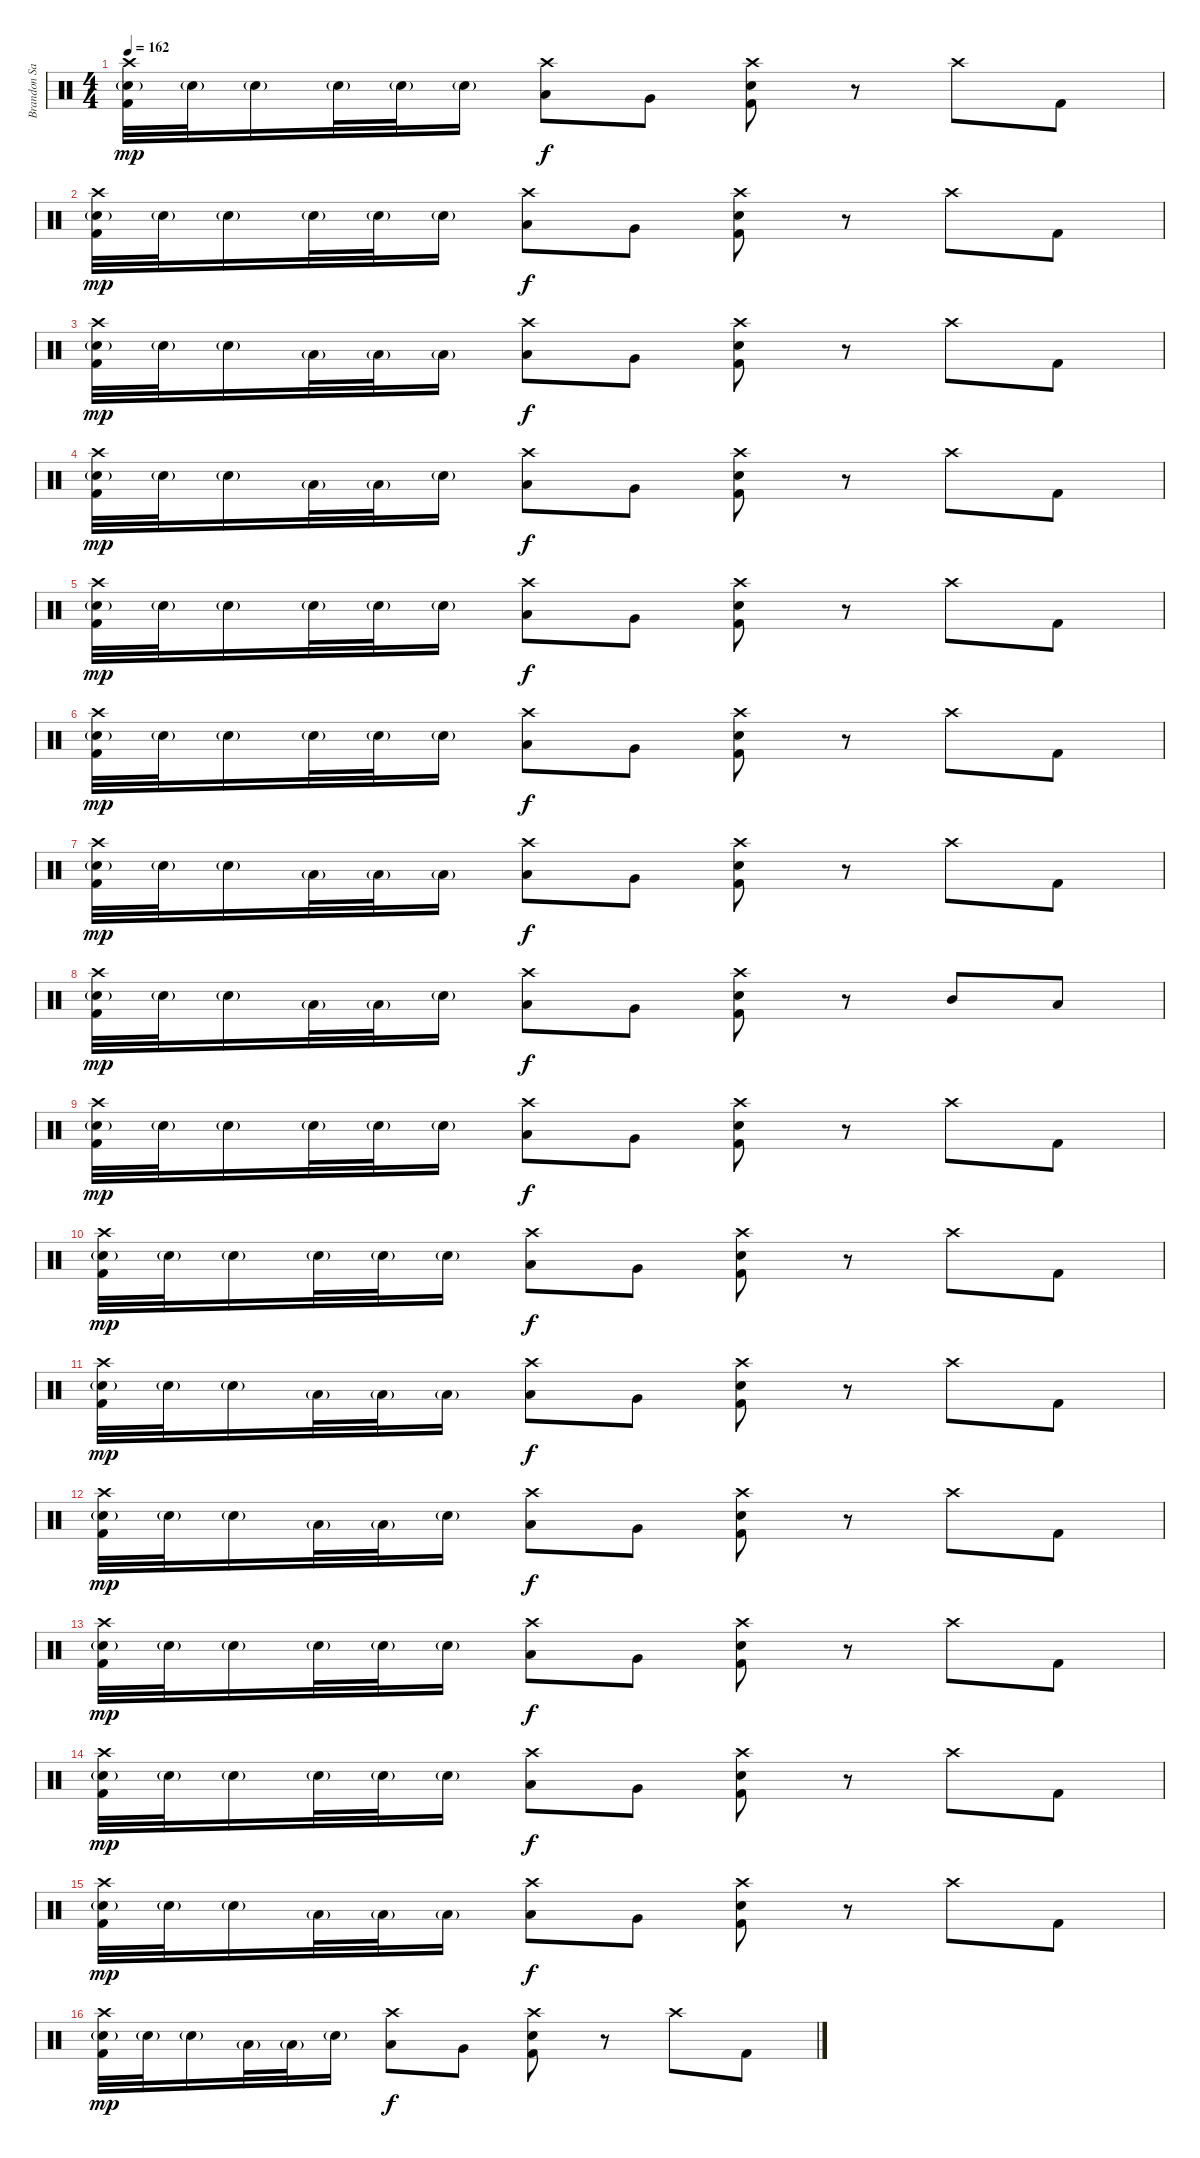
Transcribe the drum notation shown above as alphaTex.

\track ("Brandon Saller" "Brandon Sa") {instrument percussion}
\staff {score}
\articulation defaults
\ts (4 4)
\tempo 162
\clef neutral
\ks c
("Crash high (hit)" "Electric Snare (hit)"{g} "Kick (hit) 2").32{dy mp volume 12} "Electric Snare (hit)"{g}.32 "Electric Snare (hit)"{g}.16 "Electric Snare (hit)"{g}.32 "Electric Snare (hit)"{g}.32 "Electric Snare (hit)"{g}.16 ("Crash high (hit)" "Low Tom (hit)").8{dy f} "Very Low Tom (hit)".8 ("Crash high (hit)" "Electric Snare (hit)" "Kick (hit) 2").8 r.8 "Crash high (hit)".8 "Kick (hit) 2".8 |
("Crash high (hit)" "Electric Snare (hit)"{g} "Kick (hit) 2").32{dy mp} "Electric Snare (hit)"{g}.32 "Electric Snare (hit)"{g}.16 "Electric Snare (hit)"{g}.32 "Electric Snare (hit)"{g}.32 "Electric Snare (hit)"{g}.16 ("Crash high (hit)" "Low Tom (hit)").8{dy f} "Very Low Tom (hit)".8 ("Crash high (hit)" "Electric Snare (hit)" "Kick (hit) 2").8 r.8 "Crash high (hit)".8 "Kick (hit) 2".8 |
("Crash high (hit)" "Electric Snare (hit)"{g} "Kick (hit) 2").32{dy mp} "Electric Snare (hit)"{g}.32 "Electric Snare (hit)"{g}.16 "Low Floor Tom (hit)"{g}.32 "Low Floor Tom (hit)"{g}.32 "Low Floor Tom (hit)"{g}.16 ("Crash high (hit)" "Low Tom (hit)").8{dy f} "Very Low Tom (hit)".8 ("Crash high (hit)" "Electric Snare (hit)" "Kick (hit) 2").8 r.8 "Crash high (hit)".8 "Kick (hit) 2".8 |
("Crash high (hit)" "Electric Snare (hit)"{g} "Kick (hit) 2").32{dy mp} "Electric Snare (hit)"{g}.32 "Electric Snare (hit)"{g}.16 "Low Floor Tom (hit)"{g}.32 "Low Floor Tom (hit)"{g}.32 "Snare (hit)"{g}.16 ("Crash high (hit)" "Low Tom (hit)").8{dy f} "Very Low Tom (hit)".8 ("Crash high (hit)" "Electric Snare (hit)" "Kick (hit) 2").8 r.8 "Crash high (hit)".8 "Kick (hit) 2".8 |
("Crash high (hit)" "Electric Snare (hit)"{g} "Kick (hit) 2").32{dy mp} "Electric Snare (hit)"{g}.32 "Electric Snare (hit)"{g}.16 "Electric Snare (hit)"{g}.32 "Electric Snare (hit)"{g}.32 "Electric Snare (hit)"{g}.16 ("Crash high (hit)" "Low Tom (hit)").8{dy f} "Very Low Tom (hit)".8 ("Crash high (hit)" "Electric Snare (hit)" "Kick (hit) 2").8 r.8 "Crash high (hit)".8 "Kick (hit) 2".8 |
("Crash high (hit)" "Electric Snare (hit)"{g} "Kick (hit) 2").32{dy mp} "Electric Snare (hit)"{g}.32 "Electric Snare (hit)"{g}.16 "Electric Snare (hit)"{g}.32 "Electric Snare (hit)"{g}.32 "Electric Snare (hit)"{g}.16 ("Crash high (hit)" "Low Tom (hit)").8{dy f} "Very Low Tom (hit)".8 ("Crash high (hit)" "Electric Snare (hit)" "Kick (hit) 2").8 r.8 "Crash high (hit)".8 "Kick (hit) 2".8 |
("Crash high (hit)" "Electric Snare (hit)"{g} "Kick (hit) 2").32{dy mp} "Electric Snare (hit)"{g}.32 "Electric Snare (hit)"{g}.16 "Low Floor Tom (hit)"{g}.32 "Low Floor Tom (hit)"{g}.32 "Low Floor Tom (hit)"{g}.16 ("Crash high (hit)" "Low Tom (hit)").8{dy f} "Very Low Tom (hit)".8 ("Crash high (hit)" "Electric Snare (hit)" "Kick (hit) 2").8 r.8 "Crash high (hit)".8 "Kick (hit) 2".8 |
("Crash high (hit)" "Electric Snare (hit)"{g} "Kick (hit) 2").32{dy mp} "Electric Snare (hit)"{g}.32 "Electric Snare (hit)"{g}.16 "Low Floor Tom (hit)"{g}.32 "Low Floor Tom (hit)"{g}.32 "Snare (hit)"{g}.16 ("Crash high (hit)" "Low Tom (hit)").8{dy f} "Very Low Tom (hit)".8 ("Crash high (hit)" "Electric Snare (hit)" "Kick (hit) 2").8 r.8 "Mid Tom (hit)".8 "Low Tom (hit)".8 |
("Crash high (hit)" "Electric Snare (hit)"{g} "Kick (hit) 2").32{dy mp} "Electric Snare (hit)"{g}.32 "Electric Snare (hit)"{g}.16 "Electric Snare (hit)"{g}.32 "Electric Snare (hit)"{g}.32 "Electric Snare (hit)"{g}.16 ("Crash high (hit)" "Low Tom (hit)").8{dy f} "Very Low Tom (hit)".8 ("Crash high (hit)" "Electric Snare (hit)" "Kick (hit) 2").8 r.8 "Crash high (hit)".8 "Kick (hit) 2".8 |
("Crash high (hit)" "Electric Snare (hit)"{g} "Kick (hit) 2").32{dy mp} "Electric Snare (hit)"{g}.32 "Electric Snare (hit)"{g}.16 "Electric Snare (hit)"{g}.32 "Electric Snare (hit)"{g}.32 "Electric Snare (hit)"{g}.16 ("Crash high (hit)" "Low Tom (hit)").8{dy f} "Very Low Tom (hit)".8 ("Crash high (hit)" "Electric Snare (hit)" "Kick (hit) 2").8 r.8 "Crash high (hit)".8 "Kick (hit) 2".8 |
("Crash high (hit)" "Electric Snare (hit)"{g} "Kick (hit) 2").32{dy mp} "Electric Snare (hit)"{g}.32 "Electric Snare (hit)"{g}.16 "Low Floor Tom (hit)"{g}.32 "Low Floor Tom (hit)"{g}.32 "Low Floor Tom (hit)"{g}.16 ("Crash high (hit)" "Low Tom (hit)").8{dy f} "Very Low Tom (hit)".8 ("Crash high (hit)" "Electric Snare (hit)" "Kick (hit) 2").8 r.8 "Crash high (hit)".8 "Kick (hit) 2".8 |
("Crash high (hit)" "Electric Snare (hit)"{g} "Kick (hit) 2").32{dy mp} "Electric Snare (hit)"{g}.32 "Electric Snare (hit)"{g}.16 "Low Floor Tom (hit)"{g}.32 "Low Floor Tom (hit)"{g}.32 "Snare (hit)"{g}.16 ("Crash high (hit)" "Low Tom (hit)").8{dy f} "Very Low Tom (hit)".8 ("Crash high (hit)" "Electric Snare (hit)" "Kick (hit) 2").8 r.8 "Crash high (hit)".8 "Kick (hit) 2".8 |
("Crash high (hit)" "Electric Snare (hit)"{g} "Kick (hit) 2").32{dy mp} "Electric Snare (hit)"{g}.32 "Electric Snare (hit)"{g}.16 "Electric Snare (hit)"{g}.32 "Electric Snare (hit)"{g}.32 "Electric Snare (hit)"{g}.16 ("Crash high (hit)" "Low Tom (hit)").8{dy f} "Very Low Tom (hit)".8 ("Crash high (hit)" "Electric Snare (hit)" "Kick (hit) 2").8 r.8 "Crash high (hit)".8 "Kick (hit) 2".8 |
("Crash high (hit)" "Electric Snare (hit)"{g} "Kick (hit) 2").32{dy mp} "Electric Snare (hit)"{g}.32 "Electric Snare (hit)"{g}.16 "Electric Snare (hit)"{g}.32 "Electric Snare (hit)"{g}.32 "Electric Snare (hit)"{g}.16 ("Crash high (hit)" "Low Tom (hit)").8{dy f} "Very Low Tom (hit)".8 ("Crash high (hit)" "Electric Snare (hit)" "Kick (hit) 2").8 r.8 "Crash high (hit)".8 "Kick (hit) 2".8 |
("Crash high (hit)" "Electric Snare (hit)"{g} "Kick (hit) 2").32{dy mp} "Electric Snare (hit)"{g}.32 "Electric Snare (hit)"{g}.16 "Low Floor Tom (hit)"{g}.32 "Low Floor Tom (hit)"{g}.32 "Low Floor Tom (hit)"{g}.16 ("Crash high (hit)" "Low Tom (hit)").8{dy f} "Very Low Tom (hit)".8 ("Crash high (hit)" "Electric Snare (hit)" "Kick (hit) 2").8 r.8 "Crash high (hit)".8 "Kick (hit) 2".8 |
("Crash high (hit)" "Electric Snare (hit)"{g} "Kick (hit) 2").32{dy mp} "Electric Snare (hit)"{g}.32 "Electric Snare (hit)"{g}.16 "Low Floor Tom (hit)"{g}.32 "Low Floor Tom (hit)"{g}.32 "Snare (hit)"{g}.16 ("Crash high (hit)" "Low Tom (hit)").8{dy f} "Very Low Tom (hit)".8 ("Crash high (hit)" "Electric Snare (hit)" "Kick (hit) 2").8 r.8 "Crash high (hit)".8 "Kick (hit) 2".8
